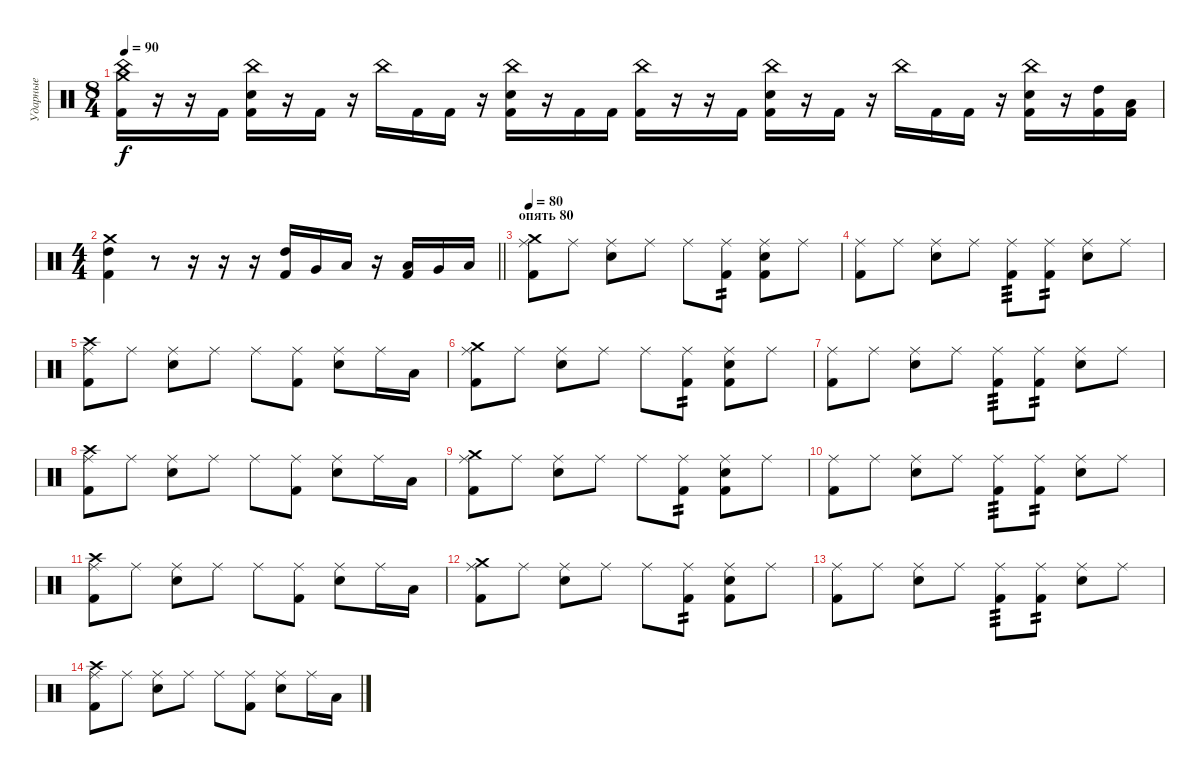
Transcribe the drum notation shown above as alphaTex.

\track ("Ударные" "Ударные") {instrument percussion}
\staff {score}
\articulation defaults
\ts (8 4)
\tempo 90
\clef neutral
\ks c
("China (hit)" "Crash medium (hit)" "Kick (hit) 2").16{dy f} r.16 r.16 "Kick (hit) 2".16 ("China (hit)" "Electric Snare (hit)" "Kick (hit) 2").16 r.16 "Kick (hit) 2".16 r.16 "China (hit)".16 "Kick (hit) 2".16 "Kick (hit) 2".16 r.16 ("China (hit)" "Electric Snare (hit)" "Kick (hit) 2").16 r.16 "Kick (hit) 2".16 "Kick (hit) 2".16 ("China (hit)" "Kick (hit) 2").16 r.16 r.16 "Kick (hit) 2".16 ("China (hit)" "Electric Snare (hit)" "Kick (hit) 2").16 r.16 "Kick (hit) 2".16 r.16 "China (hit)".16 "Kick (hit) 2".16 "Kick (hit) 2".16 r.16 ("China (hit)" "Electric Snare (hit)" "Kick (hit) 2").16 r.16 ("High Tom (hit)" "Kick (hit) 2").16 ("Low Tom (hit)" "Kick (hit) 2").16 |
\ts (4 4)
\barLineRight lightlight
("Crash medium (hit)" "High Tom (hit)" "Kick (hit) 2").4 r.8 r.16 r.16 r.16 ("High Tom (hit)" "Kick (hit) 2").16 "Very Low Tom (hit)".16 "Low Floor Tom (hit)".16 r.16 ("Low Tom (hit)" "Kick (hit) 2").16 "Very Low Tom (hit)".16 "Low Floor Tom (hit)".16 |
\section ("" "опять 80")
\tempo 80
("Crash medium (hit)" "Ride (middle)" "Kick (hit) 2").8 "Ride (middle)".8 ("Ride (middle)" "Electric Snare (hit)").8 "Ride (middle)".8 "Ride (middle)".8 ("Ride (middle)" "Kick (hit) 2").8{tp 2} ("Ride (middle)" "Electric Snare (hit)" "Kick (hit) 2").8 "Ride (middle)".8 |
("Ride (middle)" "Kick (hit) 2").8 "Ride (middle)".8 ("Ride (middle)" "Electric Snare (hit)").8 "Ride (middle)".8 ("Ride (middle)" "Kick (hit) 2").8{tp 3} ("Ride (middle)" "Kick (hit) 2").8{tp 2} ("Ride (middle)" "Electric Snare (hit)").8 "Ride (middle)".8 |
("Crash high (hit)" "Ride (middle)" "Kick (hit) 2").8 "Ride (middle)".8 ("Ride (middle)" "Electric Snare (hit)").8 "Ride (middle)".8 "Ride (middle)".8 ("Ride (middle)" "Kick (hit) 2").8 ("Ride (middle)" "Electric Snare (hit)").8 "Ride (middle)".16 "Low Tom (hit)".16 |
("Crash medium (hit)" "Ride (middle)" "Kick (hit) 2").8 "Ride (middle)".8 ("Ride (middle)" "Electric Snare (hit)").8 "Ride (middle)".8 "Ride (middle)".8 ("Ride (middle)" "Kick (hit) 2").8{tp 2} ("Ride (middle)" "Electric Snare (hit)" "Kick (hit) 2").8 "Ride (middle)".8 |
("Ride (middle)" "Kick (hit) 2").8 "Ride (middle)".8 ("Ride (middle)" "Electric Snare (hit)").8 "Ride (middle)".8 ("Ride (middle)" "Kick (hit) 2").8{tp 3} ("Ride (middle)" "Kick (hit) 2").8{tp 2} ("Ride (middle)" "Electric Snare (hit)").8 "Ride (middle)".8 |
("Crash high (hit)" "Ride (middle)" "Kick (hit) 2").8 "Ride (middle)".8 ("Ride (middle)" "Electric Snare (hit)").8 "Ride (middle)".8 "Ride (middle)".8 ("Ride (middle)" "Kick (hit) 2").8 ("Ride (middle)" "Electric Snare (hit)").8 "Ride (middle)".16 "Low Tom (hit)".16 |
("Crash medium (hit)" "Ride (middle)" "Kick (hit) 2").8 "Ride (middle)".8 ("Ride (middle)" "Electric Snare (hit)").8 "Ride (middle)".8 "Ride (middle)".8 ("Ride (middle)" "Kick (hit) 2").8{tp 2} ("Ride (middle)" "Electric Snare (hit)" "Kick (hit) 2").8 "Ride (middle)".8 |
("Ride (middle)" "Kick (hit) 2").8 "Ride (middle)".8 ("Ride (middle)" "Electric Snare (hit)").8 "Ride (middle)".8 ("Ride (middle)" "Kick (hit) 2").8{tp 3} ("Ride (middle)" "Kick (hit) 2").8{tp 2} ("Ride (middle)" "Electric Snare (hit)").8 "Ride (middle)".8 |
("Crash high (hit)" "Ride (middle)" "Kick (hit) 2").8 "Ride (middle)".8 ("Ride (middle)" "Electric Snare (hit)").8 "Ride (middle)".8 "Ride (middle)".8 ("Ride (middle)" "Kick (hit) 2").8 ("Ride (middle)" "Electric Snare (hit)").8 "Ride (middle)".16 "Low Tom (hit)".16 |
("Crash medium (hit)" "Ride (middle)" "Kick (hit) 2").8 "Ride (middle)".8 ("Ride (middle)" "Electric Snare (hit)").8 "Ride (middle)".8 "Ride (middle)".8 ("Ride (middle)" "Kick (hit) 2").8{tp 2} ("Ride (middle)" "Electric Snare (hit)" "Kick (hit) 2").8 "Ride (middle)".8 |
("Ride (middle)" "Kick (hit) 2").8 "Ride (middle)".8 ("Ride (middle)" "Electric Snare (hit)").8 "Ride (middle)".8 ("Ride (middle)" "Kick (hit) 2").8{tp 3} ("Ride (middle)" "Kick (hit) 2").8{tp 2} ("Ride (middle)" "Electric Snare (hit)").8 "Ride (middle)".8 |
("Crash high (hit)" "Ride (middle)" "Kick (hit) 2").8 "Ride (middle)".8 ("Ride (middle)" "Electric Snare (hit)").8 "Ride (middle)".8 "Ride (middle)".8 ("Ride (middle)" "Kick (hit) 2").8 ("Ride (middle)" "Electric Snare (hit)").8 "Ride (middle)".16 "Low Tom (hit)".16
